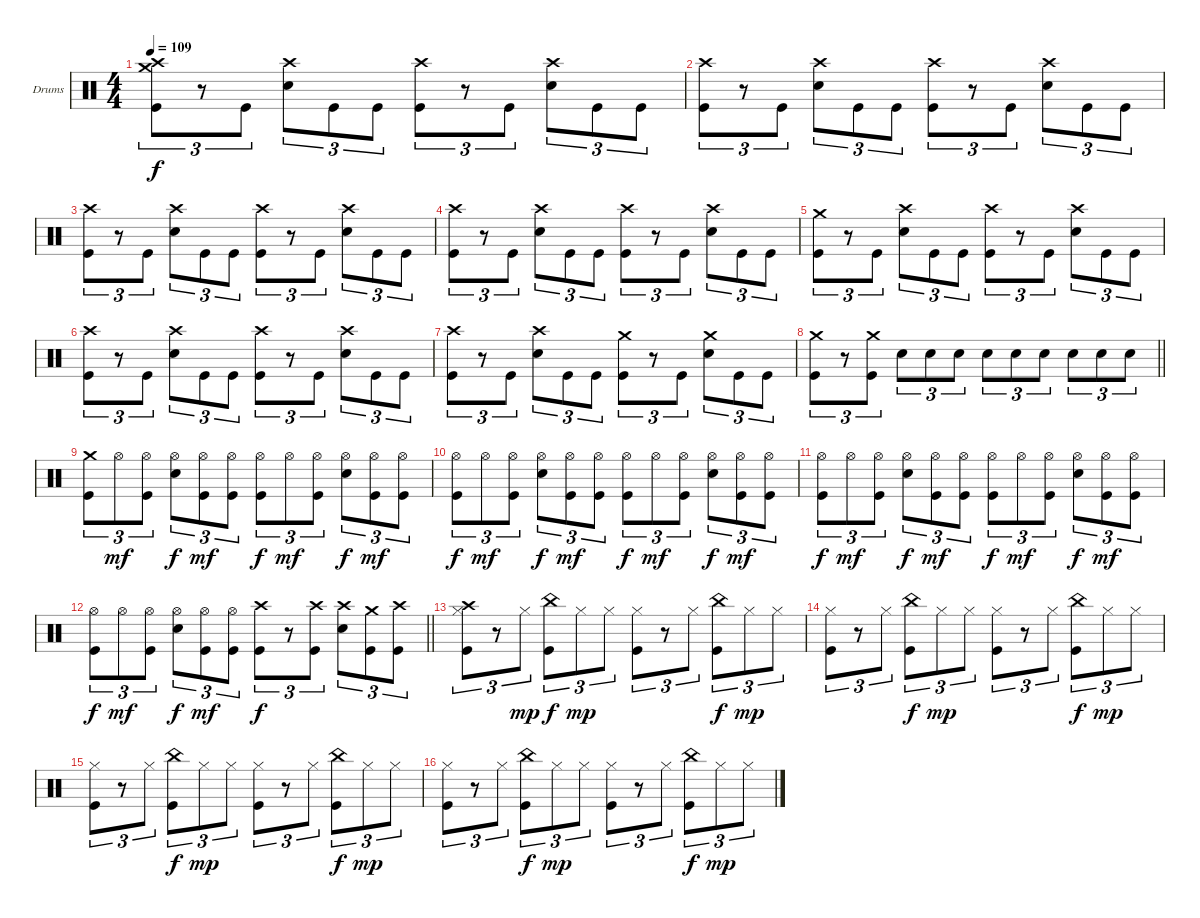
\bracketExtendMode groupsimilarinstruments
\firstSystemTrackNameOrientation horizontal
\otherSystemsTrackNameOrientation horizontal
\track ("Drumkit (Christoph)" "Drums") {instrument percussion}
\staff {score}
\articulation defaults
\ts (4 4)
\tempo 109
\clef neutral
\ks c
("Crash high (hit)" "Crash medium (hit)" "Kick (hit)").8{tu (3 2) dy f} r.8{tu (3 2)} "Kick (hit)".8{tu (3 2)} ("Crash high (hit)" "Snare (hit) 2").8{tu (3 2)} "Kick (hit)".8{tu (3 2)} "Kick (hit)".8{tu (3 2)} ("Crash high (hit)" "Kick (hit)").8{tu (3 2)} r.8{tu (3 2)} "Kick (hit)".8{tu (3 2)} ("Crash high (hit)" "Snare (hit) 2").8{tu (3 2)} "Kick (hit)".8{tu (3 2)} "Kick (hit)".8{tu (3 2)} |
("Crash high (hit)" "Kick (hit)").8{tu (3 2)} r.8{tu (3 2)} "Kick (hit)".8{tu (3 2)} ("Crash high (hit)" "Snare (hit) 2").8{tu (3 2)} "Kick (hit)".8{tu (3 2)} "Kick (hit)".8{tu (3 2)} ("Crash high (hit)" "Kick (hit)").8{tu (3 2)} r.8{tu (3 2)} "Kick (hit)".8{tu (3 2)} ("Crash high (hit)" "Snare (hit) 2").8{tu (3 2)} "Kick (hit)".8{tu (3 2)} "Kick (hit)".8{tu (3 2)} |
("Crash high (hit)" "Kick (hit)").8{tu (3 2)} r.8{tu (3 2)} "Kick (hit)".8{tu (3 2)} ("Crash high (hit)" "Snare (hit) 2").8{tu (3 2)} "Kick (hit)".8{tu (3 2)} "Kick (hit)".8{tu (3 2)} ("Crash high (hit)" "Kick (hit)").8{tu (3 2)} r.8{tu (3 2)} "Kick (hit)".8{tu (3 2)} ("Crash high (hit)" "Snare (hit) 2").8{tu (3 2)} "Kick (hit)".8{tu (3 2)} "Kick (hit)".8{tu (3 2)} |
("Crash high (hit)" "Kick (hit)").8{tu (3 2)} r.8{tu (3 2)} "Kick (hit)".8{tu (3 2)} ("Crash high (hit)" "Snare (hit) 2").8{tu (3 2)} "Kick (hit)".8{tu (3 2)} "Kick (hit)".8{tu (3 2)} ("Crash high (hit)" "Kick (hit)").8{tu (3 2)} r.8{tu (3 2)} "Kick (hit)".8{tu (3 2)} ("Crash high (hit)" "Snare (hit) 2").8{tu (3 2)} "Kick (hit)".8{tu (3 2)} "Kick (hit)".8{tu (3 2)} |
("Crash medium (hit)" "Kick (hit)").8{tu (3 2)} r.8{tu (3 2)} "Kick (hit)".8{tu (3 2)} ("Crash high (hit)" "Snare (hit) 2").8{tu (3 2)} "Kick (hit)".8{tu (3 2)} "Kick (hit)".8{tu (3 2)} ("Crash high (hit)" "Kick (hit)").8{tu (3 2)} r.8{tu (3 2)} "Kick (hit)".8{tu (3 2)} ("Crash high (hit)" "Snare (hit) 2").8{tu (3 2)} "Kick (hit)".8{tu (3 2)} "Kick (hit)".8{tu (3 2)} |
("Crash high (hit)" "Kick (hit)").8{tu (3 2)} r.8{tu (3 2)} "Kick (hit)".8{tu (3 2)} ("Crash high (hit)" "Snare (hit) 2").8{tu (3 2)} "Kick (hit)".8{tu (3 2)} "Kick (hit)".8{tu (3 2)} ("Crash high (hit)" "Kick (hit)").8{tu (3 2)} r.8{tu (3 2)} "Kick (hit)".8{tu (3 2)} ("Crash high (hit)" "Snare (hit) 2").8{tu (3 2)} "Kick (hit)".8{tu (3 2)} "Kick (hit)".8{tu (3 2)} |
("Crash high (hit)" "Kick (hit)").8{tu (3 2)} r.8{tu (3 2)} "Kick (hit)".8{tu (3 2)} ("Crash high (hit)" "Snare (hit) 2").8{tu (3 2)} "Kick (hit)".8{tu (3 2)} "Kick (hit)".8{tu (3 2)} ("Crash medium (hit)" "Kick (hit)").8{tu (3 2)} r.8{tu (3 2)} "Kick (hit)".8{tu (3 2)} ("Crash medium (hit)" "Snare (hit) 2").8{tu (3 2)} "Kick (hit)".8{tu (3 2)} "Kick (hit)".8{tu (3 2)} |
\barLineRight lightlight
("Crash medium (hit)" "Kick (hit)").8{tu (3 2)} r.8{tu (3 2)} ("Crash medium (hit)" "Kick (hit)").8{tu (3 2)} "Snare (hit) 2".8{tu (3 2)} "Snare (hit) 2".8{tu (3 2)} "Snare (hit) 2".8{tu (3 2)} "Snare (hit) 2".8{tu (3 2)} "Snare (hit) 2".8{tu (3 2)} "Snare (hit) 2".8{tu (3 2)} "Snare (hit) 2".8{tu (3 2)} "Snare (hit) 2".8{tu (3 2)} "Snare (hit) 2".8{tu (3 2)} |
("Crash medium (hit)" "Kick (hit)").8{tu (3 2)} "Hi-Hat (open)".8{tu (3 2) dy mf} ("Hi-Hat (open)" "Kick (hit)").8{tu (3 2)} ("Hi-Hat (open)" "Snare (hit) 2").8{tu (3 2) dy f} ("Hi-Hat (open)" "Kick (hit)").8{tu (3 2) dy mf} ("Hi-Hat (open)" "Kick (hit)").8{tu (3 2)} ("Hi-Hat (open)" "Kick (hit)").8{tu (3 2) dy f} "Hi-Hat (open)".8{tu (3 2) dy mf} ("Hi-Hat (open)" "Kick (hit)").8{tu (3 2)} ("Hi-Hat (open)" "Snare (hit) 2").8{tu (3 2) dy f} ("Hi-Hat (open)" "Kick (hit)").8{tu (3 2) dy mf} ("Hi-Hat (open)" "Kick (hit)").8{tu (3 2)} |
("Hi-Hat (open)" "Kick (hit)").8{tu (3 2) dy f} "Hi-Hat (open)".8{tu (3 2) dy mf} ("Hi-Hat (open)" "Kick (hit)").8{tu (3 2)} ("Hi-Hat (open)" "Snare (hit) 2").8{tu (3 2) dy f} ("Hi-Hat (open)" "Kick (hit)").8{tu (3 2) dy mf} ("Hi-Hat (open)" "Kick (hit)").8{tu (3 2)} ("Hi-Hat (open)" "Kick (hit)").8{tu (3 2) dy f} "Hi-Hat (open)".8{tu (3 2) dy mf} ("Hi-Hat (open)" "Kick (hit)").8{tu (3 2)} ("Hi-Hat (open)" "Snare (hit) 2").8{tu (3 2) dy f} ("Hi-Hat (open)" "Kick (hit)").8{tu (3 2) dy mf} ("Hi-Hat (open)" "Kick (hit)").8{tu (3 2)} |
("Hi-Hat (open)" "Kick (hit)").8{tu (3 2) dy f} "Hi-Hat (open)".8{tu (3 2) dy mf} ("Hi-Hat (open)" "Kick (hit)").8{tu (3 2)} ("Hi-Hat (open)" "Snare (hit) 2").8{tu (3 2) dy f} ("Hi-Hat (open)" "Kick (hit)").8{tu (3 2) dy mf} ("Hi-Hat (open)" "Kick (hit)").8{tu (3 2)} ("Hi-Hat (open)" "Kick (hit)").8{tu (3 2) dy f} "Hi-Hat (open)".8{tu (3 2) dy mf} ("Hi-Hat (open)" "Kick (hit)").8{tu (3 2)} ("Hi-Hat (open)" "Snare (hit) 2").8{tu (3 2) dy f} ("Hi-Hat (open)" "Kick (hit)").8{tu (3 2) dy mf} ("Hi-Hat (open)" "Kick (hit)").8{tu (3 2)} |
\barLineRight lightlight
("Hi-Hat (open)" "Kick (hit)").8{tu (3 2) dy f} "Hi-Hat (open)".8{tu (3 2) dy mf} ("Hi-Hat (open)" "Kick (hit)").8{tu (3 2)} ("Hi-Hat (open)" "Snare (hit) 2").8{tu (3 2) dy f} ("Hi-Hat (open)" "Kick (hit)").8{tu (3 2) dy mf} ("Hi-Hat (open)" "Kick (hit)").8{tu (3 2)} ("Crash high (hit)" "Kick (hit)").8{tu (3 2) dy f} r.8{tu (3 2)} ("Crash high (hit)" "Kick (hit)").8{tu (3 2)} ("Crash high (hit)" "Snare (hit) 2").8{tu (3 2)} ("Crash medium (hit)" "Kick (hit)").8{tu (3 2)} ("Crash high (hit)" "Kick (hit)").8{tu (3 2)} |
("Crash high (hit)" "Hi-Hat (closed)" "Kick (hit)").8{tu (3 2)} r.8{tu (3 2)} "Hi-Hat (closed)".8{tu (3 2) dy mp} ("China (hit)" "Kick (hit)").8{tu (3 2) dy f} "Hi-Hat (closed)".8{tu (3 2) dy mp} "Hi-Hat (closed)".8{tu (3 2)} ("Hi-Hat (closed)" "Kick (hit)").8{tu (3 2)} r.8{tu (3 2)} "Hi-Hat (closed)".8{tu (3 2)} ("China (hit)" "Kick (hit)").8{tu (3 2) dy f} "Hi-Hat (closed)".8{tu (3 2) dy mp} "Hi-Hat (closed)".8{tu (3 2)} |
("Hi-Hat (closed)" "Kick (hit)").8{tu (3 2)} r.8{tu (3 2)} "Hi-Hat (closed)".8{tu (3 2)} ("China (hit)" "Kick (hit)").8{tu (3 2) dy f} "Hi-Hat (closed)".8{tu (3 2) dy mp} "Hi-Hat (closed)".8{tu (3 2)} ("Hi-Hat (closed)" "Kick (hit)").8{tu (3 2)} r.8{tu (3 2)} "Hi-Hat (closed)".8{tu (3 2)} ("China (hit)" "Kick (hit)").8{tu (3 2) dy f} "Hi-Hat (closed)".8{tu (3 2) dy mp} "Hi-Hat (closed)".8{tu (3 2)} |
("Hi-Hat (closed)" "Kick (hit)").8{tu (3 2)} r.8{tu (3 2)} "Hi-Hat (closed)".8{tu (3 2)} ("China (hit)" "Kick (hit)").8{tu (3 2) dy f} "Hi-Hat (closed)".8{tu (3 2) dy mp} "Hi-Hat (closed)".8{tu (3 2)} ("Hi-Hat (closed)" "Kick (hit)").8{tu (3 2)} r.8{tu (3 2)} "Hi-Hat (closed)".8{tu (3 2)} ("China (hit)" "Kick (hit)").8{tu (3 2) dy f} "Hi-Hat (closed)".8{tu (3 2) dy mp} "Hi-Hat (closed)".8{tu (3 2)} |
("Hi-Hat (closed)" "Kick (hit)").8{tu (3 2)} r.8{tu (3 2)} "Hi-Hat (closed)".8{tu (3 2)} ("China (hit)" "Kick (hit)").8{tu (3 2) dy f} "Hi-Hat (closed)".8{tu (3 2) dy mp} "Hi-Hat (closed)".8{tu (3 2)} ("Hi-Hat (closed)" "Kick (hit)").8{tu (3 2)} r.8{tu (3 2)} "Hi-Hat (closed)".8{tu (3 2)} ("China (hit)" "Kick (hit)").8{tu (3 2) dy f} "Hi-Hat (closed)".8{tu (3 2) dy mp} "Hi-Hat (closed)".8{tu (3 2)}
